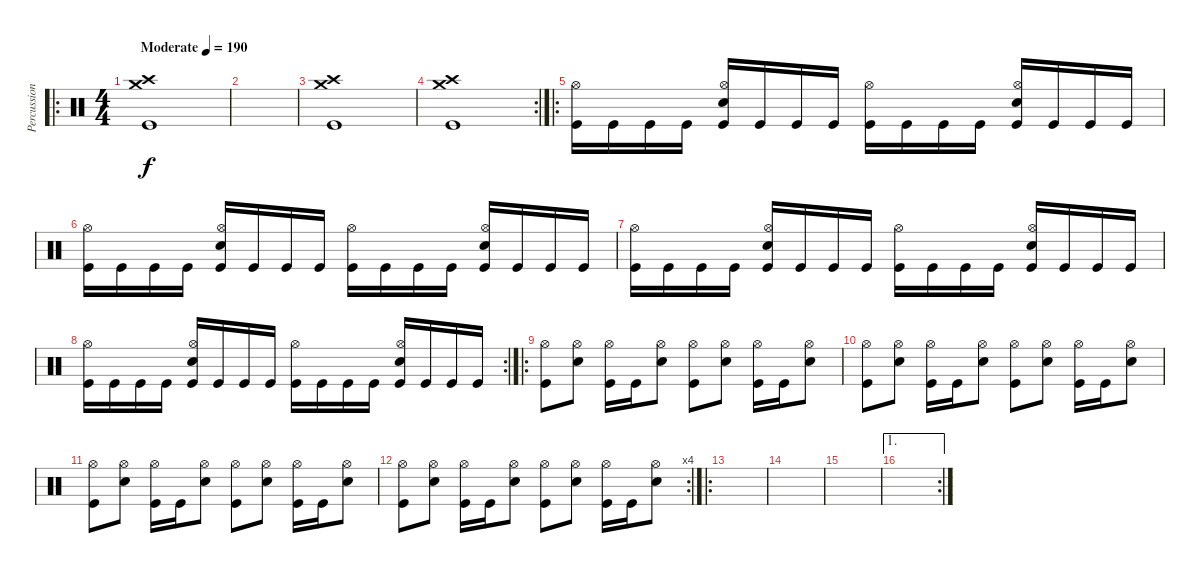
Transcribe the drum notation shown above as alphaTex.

\track ("Percussion" "Percussion") {instrument percussion}
\staff {score}
\articulation defaults
\ro
\ts (4 4)
\tempo (190 "Moderate")
\clef neutral
\ks c
("Crash medium (hit)" "Crash high (hit)" "Kick (hit)").1{dy f} |
|
("Crash medium (hit)" "Crash high (hit)" "Kick (hit)").1 |
\rc 2
("Crash medium (hit)" "Crash high (hit)" "Kick (hit)").1 |
\ro
("Hi-Hat (open)" "Kick (hit)").16 "Kick (hit)".16 "Kick (hit)".16 "Kick (hit)".16 ("Hi-Hat (open)" "Snare (hit) 2" "Kick (hit)").16 "Kick (hit)".16 "Kick (hit)".16 "Kick (hit)".16 ("Hi-Hat (open)" "Kick (hit)").16 "Kick (hit)".16 "Kick (hit)".16 "Kick (hit)".16 ("Hi-Hat (open)" "Snare (hit) 2" "Kick (hit)").16 "Kick (hit)".16 "Kick (hit)".16 "Kick (hit)".16 |
("Hi-Hat (open)" "Kick (hit)").16 "Kick (hit)".16 "Kick (hit)".16 "Kick (hit)".16 ("Hi-Hat (open)" "Snare (hit) 2" "Kick (hit)").16 "Kick (hit)".16 "Kick (hit)".16 "Kick (hit)".16 ("Hi-Hat (open)" "Kick (hit)").16 "Kick (hit)".16 "Kick (hit)".16 "Kick (hit)".16 ("Hi-Hat (open)" "Snare (hit) 2" "Kick (hit)").16 "Kick (hit)".16 "Kick (hit)".16 "Kick (hit)".16 |
("Hi-Hat (open)" "Kick (hit)").16 "Kick (hit)".16 "Kick (hit)".16 "Kick (hit)".16 ("Hi-Hat (open)" "Snare (hit) 2" "Kick (hit)").16 "Kick (hit)".16 "Kick (hit)".16 "Kick (hit)".16 ("Hi-Hat (open)" "Kick (hit)").16 "Kick (hit)".16 "Kick (hit)".16 "Kick (hit)".16 ("Hi-Hat (open)" "Snare (hit) 2" "Kick (hit)").16 "Kick (hit)".16 "Kick (hit)".16 "Kick (hit)".16 |
\rc 2
("Hi-Hat (open)" "Kick (hit)").16 "Kick (hit)".16 "Kick (hit)".16 "Kick (hit)".16 ("Hi-Hat (open)" "Snare (hit) 2" "Kick (hit)").16 "Kick (hit)".16 "Kick (hit)".16 "Kick (hit)".16 ("Hi-Hat (open)" "Kick (hit)").16 "Kick (hit)".16 "Kick (hit)".16 "Kick (hit)".16 ("Hi-Hat (open)" "Snare (hit) 2" "Kick (hit)").16 "Kick (hit)".16 "Kick (hit)".16 "Kick (hit)".16 |
\ro
("Hi-Hat (open)" "Kick (hit)").8 ("Hi-Hat (open)" "Snare (hit) 2").8 ("Hi-Hat (open)" "Kick (hit)").16 "Kick (hit)".16 ("Hi-Hat (open)" "Snare (hit) 2").8 ("Hi-Hat (open)" "Kick (hit)").8 ("Hi-Hat (open)" "Snare (hit) 2").8 ("Hi-Hat (open)" "Kick (hit)").16 "Kick (hit)".16 ("Hi-Hat (open)" "Snare (hit) 2").8 |
("Hi-Hat (open)" "Kick (hit)").8 ("Hi-Hat (open)" "Snare (hit) 2").8 ("Hi-Hat (open)" "Kick (hit)").16 "Kick (hit)".16 ("Hi-Hat (open)" "Snare (hit) 2").8 ("Hi-Hat (open)" "Kick (hit)").8 ("Hi-Hat (open)" "Snare (hit) 2").8 ("Hi-Hat (open)" "Kick (hit)").16 "Kick (hit)".16 ("Hi-Hat (open)" "Snare (hit) 2").8 |
("Hi-Hat (open)" "Kick (hit)").8 ("Hi-Hat (open)" "Snare (hit) 2").8 ("Hi-Hat (open)" "Kick (hit)").16 "Kick (hit)".16 ("Hi-Hat (open)" "Snare (hit) 2").8 ("Hi-Hat (open)" "Kick (hit)").8 ("Hi-Hat (open)" "Snare (hit) 2").8 ("Hi-Hat (open)" "Kick (hit)").16 "Kick (hit)".16 ("Hi-Hat (open)" "Snare (hit) 2").8 |
\rc 4
("Hi-Hat (open)" "Kick (hit)").8 ("Hi-Hat (open)" "Snare (hit) 2").8 ("Hi-Hat (open)" "Kick (hit)").16 "Kick (hit)".16 ("Hi-Hat (open)" "Snare (hit) 2").8 ("Hi-Hat (open)" "Kick (hit)").8 ("Hi-Hat (open)" "Snare (hit) 2").8 ("Hi-Hat (open)" "Kick (hit)").16 "Kick (hit)".16 ("Hi-Hat (open)" "Snare (hit) 2").8 |
\ro
|
|
|
\ae 1
\rc 2
